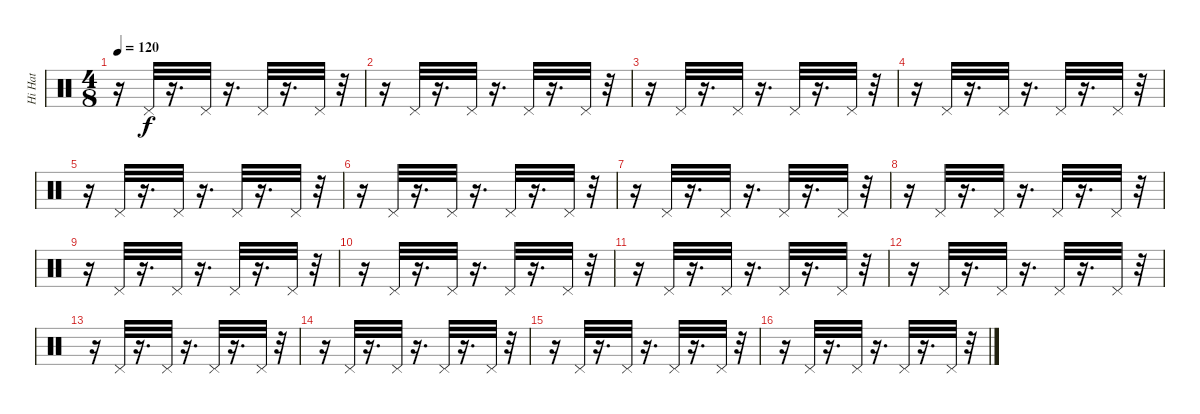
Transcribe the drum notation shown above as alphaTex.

\track ("Hi Hat" "Hi Hat") {instrument percussion}
\staff {score}
\articulation defaults
\ts (4 8)
\tempo 120
\clef neutral
\ks c
r.16{dy f} "Pedal Hi-Hat (hit)".32 r.16{d} "Pedal Hi-Hat (hit)".32 r.16{d} "Pedal Hi-Hat (hit)".32 r.16{d} "Pedal Hi-Hat (hit)".32 r.32 |
r.16 "Pedal Hi-Hat (hit)".32 r.16{d} "Pedal Hi-Hat (hit)".32 r.16{d} "Pedal Hi-Hat (hit)".32 r.16{d} "Pedal Hi-Hat (hit)".32 r.32 |
r.16 "Pedal Hi-Hat (hit)".32 r.16{d} "Pedal Hi-Hat (hit)".32 r.16{d} "Pedal Hi-Hat (hit)".32 r.16{d} "Pedal Hi-Hat (hit)".32 r.32 |
r.16 "Pedal Hi-Hat (hit)".32 r.16{d} "Pedal Hi-Hat (hit)".32 r.16{d} "Pedal Hi-Hat (hit)".32 r.16{d} "Pedal Hi-Hat (hit)".32 r.32 |
r.16 "Pedal Hi-Hat (hit)".32 r.16{d} "Pedal Hi-Hat (hit)".32 r.16{d} "Pedal Hi-Hat (hit)".32 r.16{d} "Pedal Hi-Hat (hit)".32 r.32 |
r.16 "Pedal Hi-Hat (hit)".32 r.16{d} "Pedal Hi-Hat (hit)".32 r.16{d} "Pedal Hi-Hat (hit)".32 r.16{d} "Pedal Hi-Hat (hit)".32 r.32 |
r.16 "Pedal Hi-Hat (hit)".32 r.16{d} "Pedal Hi-Hat (hit)".32 r.16{d} "Pedal Hi-Hat (hit)".32 r.16{d} "Pedal Hi-Hat (hit)".32 r.32 |
r.16 "Pedal Hi-Hat (hit)".32 r.16{d} "Pedal Hi-Hat (hit)".32 r.16{d} "Pedal Hi-Hat (hit)".32 r.16{d} "Pedal Hi-Hat (hit)".32 r.32 |
r.16 "Pedal Hi-Hat (hit)".32 r.16{d} "Pedal Hi-Hat (hit)".32 r.16{d} "Pedal Hi-Hat (hit)".32 r.16{d} "Pedal Hi-Hat (hit)".32 r.32 |
r.16 "Pedal Hi-Hat (hit)".32 r.16{d} "Pedal Hi-Hat (hit)".32 r.16{d} "Pedal Hi-Hat (hit)".32 r.16{d} "Pedal Hi-Hat (hit)".32 r.32 |
r.16 "Pedal Hi-Hat (hit)".32 r.16{d} "Pedal Hi-Hat (hit)".32 r.16{d} "Pedal Hi-Hat (hit)".32 r.16{d} "Pedal Hi-Hat (hit)".32 r.32 |
r.16 "Pedal Hi-Hat (hit)".32 r.16{d} "Pedal Hi-Hat (hit)".32 r.16{d} "Pedal Hi-Hat (hit)".32 r.16{d} "Pedal Hi-Hat (hit)".32 r.32 |
r.16 "Pedal Hi-Hat (hit)".32 r.16{d} "Pedal Hi-Hat (hit)".32 r.16{d} "Pedal Hi-Hat (hit)".32 r.16{d} "Pedal Hi-Hat (hit)".32 r.32 |
r.16 "Pedal Hi-Hat (hit)".32 r.16{d} "Pedal Hi-Hat (hit)".32 r.16{d} "Pedal Hi-Hat (hit)".32 r.16{d} "Pedal Hi-Hat (hit)".32 r.32 |
r.16 "Pedal Hi-Hat (hit)".32 r.16{d} "Pedal Hi-Hat (hit)".32 r.16{d} "Pedal Hi-Hat (hit)".32 r.16{d} "Pedal Hi-Hat (hit)".32 r.32 |
r.16 "Pedal Hi-Hat (hit)".32 r.16{d} "Pedal Hi-Hat (hit)".32 r.16{d} "Pedal Hi-Hat (hit)".32 r.16{d} "Pedal Hi-Hat (hit)".32 r.32
